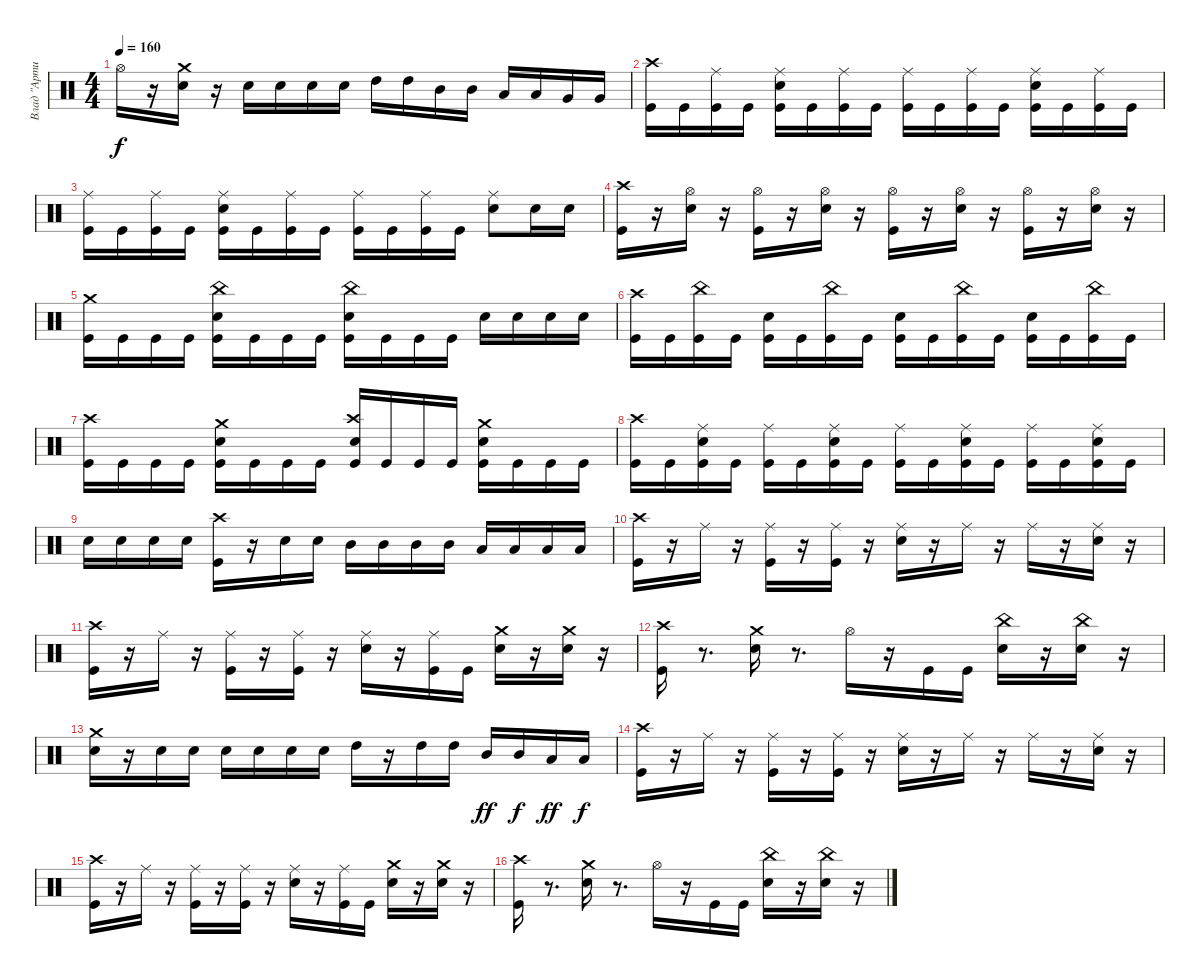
\track ("Влад \"Артист\"" "Влад \"Арти") {instrument percussion}
\staff {score}
\articulation defaults
\ts (4 4)
\tempo 160
\clef neutral
\ks c "Hi-Hat (open)".16{dy f}
r.16 ("Crash medium (hit)" "Snare (hit) 2").16 r.16 "Snare (hit) 2".16 "Snare (hit) 2".16 "Snare (hit) 2".16 "Snare (hit) 2".16 "High Tom (hit)".16 "High Tom (hit)".16 "Mid Tom (hit)".16 "Mid Tom (hit)".16 "Low Tom (hit)".16 "Low Tom (hit)".16 "Very Low Tom (hit)".16 "Very Low Tom (hit)".16 |
("Crash high (hit)" "Kick (hit)").16 "Kick (hit)".16 ("Ride (middle)" "Kick (hit)").16 "Kick (hit)".16 ("Snare (hit) 2" "Ride (middle)" "Kick (hit)").16 "Kick (hit)".16 ("Kick (hit)" "Ride (middle)").16 "Kick (hit)".16 ("Ride (middle)" "Kick (hit)").16 "Kick (hit)".16 ("Kick (hit)" "Ride (middle)").16 "Kick (hit)".16 ("Snare (hit) 2" "Ride (middle)" "Kick (hit)").16 "Kick (hit)".16 ("Kick (hit)" "Ride (middle)").16 "Kick (hit)".16 |
("Ride (middle)" "Kick (hit)").16 "Kick (hit)".16 ("Ride (middle)" "Kick (hit)").16 "Kick (hit)".16 ("Snare (hit) 2" "Ride (middle)" "Kick (hit)").16 "Kick (hit)".16 ("Ride (middle)" "Kick (hit)").16 "Kick (hit)".16 ("Ride (middle)" "Kick (hit)").16 "Kick (hit)".16 ("Ride (middle)" "Kick (hit)").16 "Kick (hit)".16 ("Snare (hit) 2" "Ride (middle)").8 "Snare (hit) 2".16 "Snare (hit) 2".16 |
("Kick (hit)" "Crash high (hit)").16 r.16 ("Snare (hit) 2" "Hi-Hat (open)").16 r.16 ("Kick (hit)" "Hi-Hat (open)").16 r.16 ("Snare (hit) 2" "Hi-Hat (open)").16 r.16 ("Kick (hit)" "Hi-Hat (open)").16 r.16 ("Hi-Hat (open)" "Snare (hit) 2").16 r.16 ("Kick (hit)" "Hi-Hat (open)").16 r.16 ("Snare (hit) 2" "Hi-Hat (open)").16 r.16 |
("Crash medium (hit)" "Kick (hit)").16 "Kick (hit)".16 "Kick (hit)".16 "Kick (hit)".16 ("Snare (hit) 2" "China (hit)" "Kick (hit)").16 "Kick (hit)".16 "Kick (hit)".16 "Kick (hit)".16 ("Snare (hit) 2" "China (hit)" "Kick (hit)").16 "Kick (hit)".16 "Kick (hit)".16 "Kick (hit)".16 "Snare (hit) 2".16 "Snare (hit) 2".16 "Snare (hit) 2".16 "Snare (hit) 2".16 |
("Crash high (hit)" "Kick (hit)").16 "Kick (hit)".16 ("Kick (hit)" "China (hit)").16 "Kick (hit)".16 ("Snare (hit) 2" "Kick (hit)").16 "Kick (hit)".16 ("China (hit)" "Kick (hit)").16 "Kick (hit)".16 ("Snare (hit) 2" "Kick (hit)").16 "Kick (hit)".16 ("Kick (hit)" "China (hit)").16 "Kick (hit)".16 ("Snare (hit) 2" "Kick (hit)").16 "Kick (hit)".16 ("China (hit)" "Kick (hit)").16 "Kick (hit)".16 |
("Kick (hit)" "Crash high (hit)").16 "Kick (hit)".16 "Kick (hit)".16 "Kick (hit)".16 ("Crash medium (hit)" "Snare (hit) 2" "Kick (hit)").16 "Kick (hit)".16 "Kick (hit)".16 "Kick (hit)".16 ("Snare (hit) 2" "Crash high (hit)" "Kick (hit)").16 "Kick (hit)".16 "Kick (hit)".16 "Kick (hit)".16 ("Snare (hit) 2" "Crash medium (hit)" "Kick (hit)").16 "Kick (hit)".16 "Kick (hit)".16 "Kick (hit)".16 |
("Kick (hit)" "Crash high (hit)").16 "Kick (hit)".16 ("Snare (hit) 2" "Kick (hit)" "Ride (middle)").16 "Kick (hit)".16 ("Ride (middle)" "Kick (hit)").16 "Kick (hit)".16 ("Snare (hit) 2" "Ride (middle)" "Kick (hit)").16 "Kick (hit)".16 ("Ride (middle)" "Kick (hit)").16 "Kick (hit)".16 ("Ride (middle)" "Kick (hit)" "Snare (hit) 2").16 "Kick (hit)".16 ("Ride (middle)" "Kick (hit)").16 "Kick (hit)".16 ("Snare (hit) 2" "Ride (middle)" "Kick (hit)").16 "Kick (hit)".16 |
"Snare (hit) 2".16 "Snare (hit) 2".16 "Snare (hit) 2".16 "Snare (hit) 2".16 ("Crash high (hit)" "Kick (hit)").16 r.16 "Snare (hit) 2".16 "Snare (hit) 2".16 "Mid Tom (hit)".16 "Mid Tom (hit)".16 "Mid Tom (hit)".16 "Mid Tom (hit)".16 "Low Tom (hit)".16 "Low Tom (hit)".16 "Low Tom (hit)".16 "Low Tom (hit)".16 |
("Crash high (hit)" "Kick (hit)").16 r.16 "Ride (middle)".16 r.16 ("Kick (hit)" "Ride (middle)").16 r.16 ("Ride (middle)" "Kick (hit)").16 r.16 ("Snare (hit) 2" "Ride (middle)").16 r.16 "Ride (middle)".16 r.16 "Ride (middle)".16 r.16 ("Ride (middle)" "Snare (hit) 2").16 r.16 |
("Crash high (hit)" "Kick (hit)").16 r.16 "Ride (middle)".16 r.16 ("Ride (middle)" "Kick (hit)").16 r.16 ("Ride (middle)" "Kick (hit)").16 r.16 ("Ride (middle)" "Snare (hit) 2").16 r.16 ("Ride (middle)" "Kick (hit)").16 "Kick (hit)".16 ("Crash medium (hit)" "Snare (hit) 2").16 r.16 ("Crash medium (hit)" "Snare (hit) 2").16 r.16 |
("Kick (hit)" "Crash high (hit)").16 r.8{d} ("Crash medium (hit)" "Snare (hit) 2").16 r.8{d} "Hi-Hat (open)".16 r.16 "Kick (hit)".16 "Kick (hit)".16 ("Snare (hit) 2" "China (hit)").16 r.16 ("Snare (hit) 2" "China (hit)").16 r.16 |
("Crash medium (hit)" "Snare (hit) 2").16 r.16 "Snare (hit) 2".16 "Snare (hit) 2".16 "Snare (hit) 2".16 "Snare (hit) 2".16 "Snare (hit) 2".16 "Snare (hit) 2".16 "High Tom (hit)".16 r.16 "High Tom (hit)".16 "High Tom (hit)".16 "Mid Tom (hit)".16{dy ff} "Mid Tom (hit)".16{dy f} "Low Tom (hit)".16{dy ff} "Low Tom (hit)".16{dy f} |
("Crash high (hit)" "Kick (hit)").16 r.16 "Ride (middle)".16 r.16 ("Kick (hit)" "Ride (middle)").16 r.16 ("Ride (middle)" "Kick (hit)").16 r.16 ("Snare (hit) 2" "Ride (middle)").16 r.16 "Ride (middle)".16 r.16 "Ride (middle)".16 r.16 ("Ride (middle)" "Snare (hit) 2").16 r.16 |
("Crash high (hit)" "Kick (hit)").16 r.16 "Ride (middle)".16 r.16 ("Ride (middle)" "Kick (hit)").16 r.16 ("Ride (middle)" "Kick (hit)").16 r.16 ("Ride (middle)" "Snare (hit) 2").16 r.16 ("Ride (middle)" "Kick (hit)").16 "Kick (hit)".16 ("Crash medium (hit)" "Snare (hit) 2").16 r.16 ("Crash medium (hit)" "Snare (hit) 2").16 r.16 |
("Kick (hit)" "Crash high (hit)").16 r.8{d} ("Crash medium (hit)" "Snare (hit) 2").16 r.8{d} "Hi-Hat (open)".16 r.16 "Kick (hit)".16 "Kick (hit)".16 ("Snare (hit) 2" "China (hit)").16 r.16 ("Snare (hit) 2" "China (hit)").16 r.16
